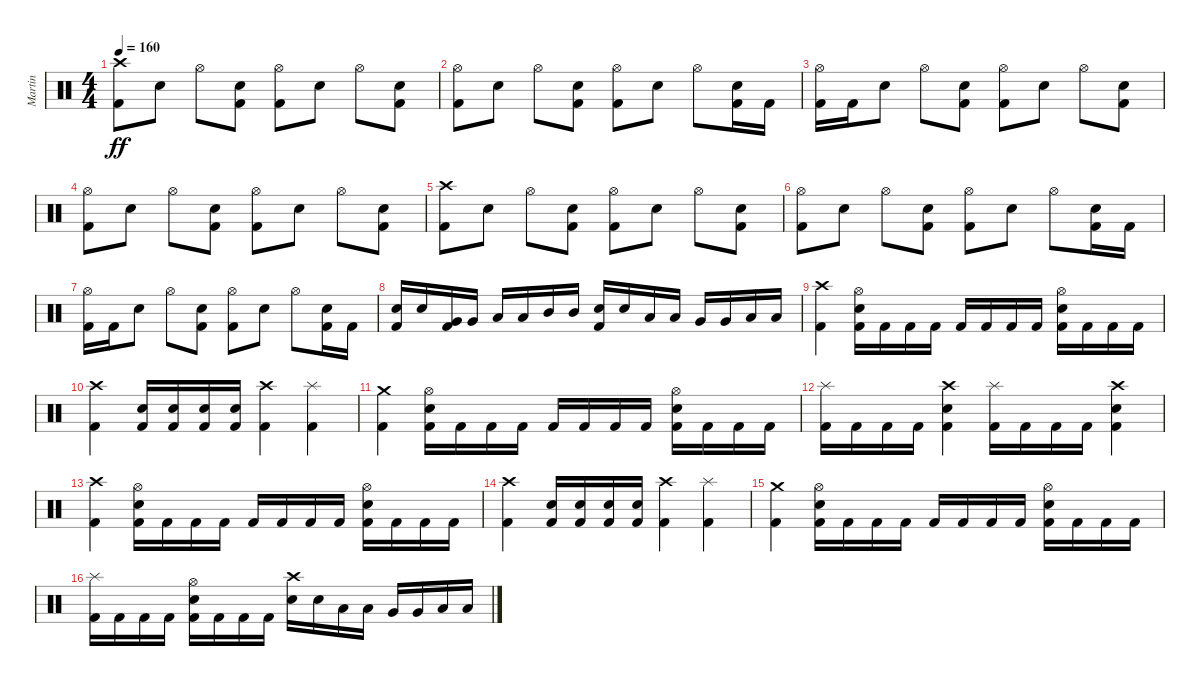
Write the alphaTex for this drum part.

\track ("Martin" "Martin") {instrument percussion}
\staff {score}
\articulation defaults
\ts (4 4)
\tempo 160
\clef neutral
\ks c
("Crash high (hit)" "Kick (hit) 2").8{dy ff} "Electric Snare (hit)".8 "Hi-Hat (open)".8 ("Electric Snare (hit)" "Kick (hit) 2").8 ("Hi-Hat (open)" "Kick (hit) 2").8 "Electric Snare (hit)".8 "Hi-Hat (open)".8 ("Electric Snare (hit)" "Kick (hit) 2").8 |
("Hi-Hat (open)" "Kick (hit) 2").8 "Electric Snare (hit)".8 "Hi-Hat (open)".8 ("Electric Snare (hit)" "Kick (hit) 2").8 ("Hi-Hat (open)" "Kick (hit) 2").8 "Electric Snare (hit)".8 "Hi-Hat (open)".8 ("Electric Snare (hit)" "Kick (hit) 2").16 "Kick (hit) 2".16 |
("Hi-Hat (open)" "Kick (hit) 2").16 "Kick (hit) 2".16 "Electric Snare (hit)".8 "Hi-Hat (open)".8 ("Electric Snare (hit)" "Kick (hit) 2").8 ("Hi-Hat (open)" "Kick (hit) 2").8 "Electric Snare (hit)".8 "Hi-Hat (open)".8 ("Electric Snare (hit)" "Kick (hit) 2").8 |
("Hi-Hat (open)" "Kick (hit) 2").8 "Electric Snare (hit)".8 "Hi-Hat (open)".8 ("Electric Snare (hit)" "Kick (hit) 2").8 ("Hi-Hat (open)" "Kick (hit) 2").8 "Electric Snare (hit)".8 "Hi-Hat (open)".8 ("Electric Snare (hit)" "Kick (hit) 2").8 |
("Crash high (hit)" "Kick (hit) 2").8 "Electric Snare (hit)".8 "Hi-Hat (open)".8 ("Electric Snare (hit)" "Kick (hit) 2").8 ("Hi-Hat (open)" "Kick (hit) 2").8 "Electric Snare (hit)".8 "Hi-Hat (open)".8 ("Electric Snare (hit)" "Kick (hit) 2").8 |
("Hi-Hat (open)" "Kick (hit) 2").8 "Electric Snare (hit)".8 "Hi-Hat (open)".8 ("Electric Snare (hit)" "Kick (hit) 2").8 ("Hi-Hat (open)" "Kick (hit) 2").8 "Electric Snare (hit)".8 "Hi-Hat (open)".8 ("Electric Snare (hit)" "Kick (hit) 2").16 "Kick (hit) 2".16 |
("Hi-Hat (open)" "Kick (hit) 2").16 "Kick (hit) 2".16 "Electric Snare (hit)".8 "Hi-Hat (open)".8 ("Electric Snare (hit)" "Kick (hit) 2").8 ("Hi-Hat (open)" "Kick (hit) 2").8 "Electric Snare (hit)".8 "Hi-Hat (open)".8 ("Electric Snare (hit)" "Kick (hit) 2").16 "Kick (hit) 2".16 |
("Electric Snare (hit)" "Kick (hit) 2").16 "Electric Snare (hit)".16 ("Very Low Tom (hit)" "Kick (hit) 2").16 "Very Low Tom (hit)".16 "Low Tom (hit)".16 "Low Tom (hit)".16 "Mid Tom (hit)".16 "Mid Tom (hit)".16 ("Electric Snare (hit)" "Kick (hit) 2").16 "Electric Snare (hit)".16 "Low Tom (hit)".16 "Low Tom (hit)".16 "Very Low Tom (hit)".16 "Very Low Tom (hit)".16 "Low Floor Tom (hit)".16 "Low Floor Tom (hit)".16 |
("Crash high (hit)" "Kick (hit) 2").4 ("Hi-Hat (open)" "Electric Snare (hit)" "Kick (hit) 2").16 "Kick (hit) 2".16 "Kick (hit) 2".16 "Kick (hit) 2".16 "Kick (hit) 2".16 "Kick (hit) 2".16 "Kick (hit) 2".16 "Kick (hit) 2".16 ("Hi-Hat (open)" "Electric Snare (hit)" "Kick (hit) 2").16 "Kick (hit) 2".16 "Kick (hit) 2".16 "Kick (hit) 2".16 |
("Crash high (hit)" "Kick (hit) 2").4 ("Electric Snare (hit)" "Kick (hit) 2").16 ("Electric Snare (hit)" "Kick (hit) 2").16 ("Electric Snare (hit)" "Kick (hit) 2").16 ("Electric Snare (hit)" "Kick (hit) 2").16 ("Crash high (hit)" "Kick (hit) 2").4 ("Splash (hit)" "Kick (hit) 2").4 |
("Crash medium (hit)" "Kick (hit) 2").4 ("Hi-Hat (open)" "Electric Snare (hit)" "Kick (hit) 2").16 "Kick (hit) 2".16 "Kick (hit) 2".16 "Kick (hit) 2".16 "Kick (hit) 2".16 "Kick (hit) 2".16 "Kick (hit) 2".16 "Kick (hit) 2".16 ("Hi-Hat (open)" "Electric Snare (hit)" "Kick (hit) 2").16 "Kick (hit) 2".16 "Kick (hit) 2".16 "Kick (hit) 2".16 |
("Splash (hit)" "Kick (hit) 2").16 "Kick (hit) 2".16 "Kick (hit) 2".16 "Kick (hit) 2".16 ("Crash high (hit)" "Electric Snare (hit)" "Kick (hit) 2").4 ("Splash (hit)" "Kick (hit) 2").16 "Kick (hit) 2".16 "Kick (hit) 2".16 "Kick (hit) 2".16 ("Crash high (hit)" "Electric Snare (hit)" "Kick (hit) 2").4 |
("Crash high (hit)" "Kick (hit) 2").4 ("Hi-Hat (open)" "Electric Snare (hit)" "Kick (hit) 2").16 "Kick (hit) 2".16 "Kick (hit) 2".16 "Kick (hit) 2".16 "Kick (hit) 2".16 "Kick (hit) 2".16 "Kick (hit) 2".16 "Kick (hit) 2".16 ("Hi-Hat (open)" "Electric Snare (hit)" "Kick (hit) 2").16 "Kick (hit) 2".16 "Kick (hit) 2".16 "Kick (hit) 2".16 |
("Crash high (hit)" "Kick (hit) 2").4 ("Electric Snare (hit)" "Kick (hit) 2").16 ("Electric Snare (hit)" "Kick (hit) 2").16 ("Electric Snare (hit)" "Kick (hit) 2").16 ("Electric Snare (hit)" "Kick (hit) 2").16 ("Crash high (hit)" "Kick (hit) 2").4 ("Splash (hit)" "Kick (hit) 2").4 |
("Crash medium (hit)" "Kick (hit) 2").4 ("Hi-Hat (open)" "Electric Snare (hit)" "Kick (hit) 2").16 "Kick (hit) 2".16 "Kick (hit) 2".16 "Kick (hit) 2".16 "Kick (hit) 2".16 "Kick (hit) 2".16 "Kick (hit) 2".16 "Kick (hit) 2".16 ("Hi-Hat (open)" "Electric Snare (hit)" "Kick (hit) 2").16 "Kick (hit) 2".16 "Kick (hit) 2".16 "Kick (hit) 2".16 |
("Splash (hit)" "Kick (hit) 2").16 "Kick (hit) 2".16 "Kick (hit) 2".16 "Kick (hit) 2".16 ("Hi-Hat (open)" "Electric Snare (hit)" "Kick (hit) 2").16 "Kick (hit) 2".16 "Kick (hit) 2".16 "Kick (hit) 2".16 ("Crash high (hit)" "Electric Snare (hit)").16 "Electric Snare (hit)".16 "Low Tom (hit)".16 "Low Tom (hit)".16 "Very Low Tom (hit)".16 "Very Low Tom (hit)".16 "Low Floor Tom (hit)".16 "Low Floor Tom (hit)".16
